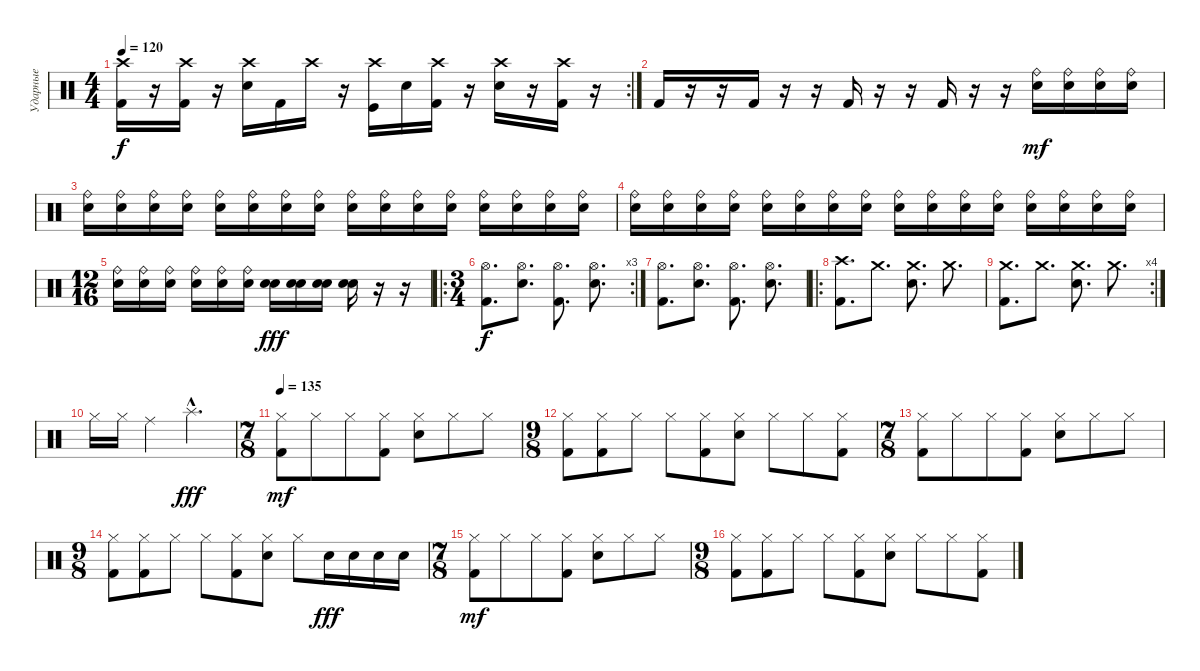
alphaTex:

\track ("Ударные" "Ударные") {instrument percussion}
\staff {score}
\articulation defaults
\rc 2
\ts (4 4)
\tempo 120
\clef neutral
\ks c
("Crash high (hit)" "Kick (hit) 2").16{dy f} r.16 ("Crash high (hit)" "Kick (hit) 2").16 r.16 ("Crash high (hit)" "Snare (hit) 2").16 "Kick (hit) 2".16 "Crash high (hit)".16 r.16 ("Crash high (hit)" "Kick (hit)").16 "Snare (hit) 2".16 ("Crash high (hit)" "Kick (hit) 2").16 r.16 ("Crash high (hit)" "Snare (hit) 2").16 r.16 ("Crash high (hit)" "Kick (hit) 2").16 r.16 |
"Kick (hit) 2".16 r.16 r.16 "Kick (hit) 2".16 r.16 r.16 "Kick (hit) 2".16 r.16 r.16 "Kick (hit) 2".16 r.16 r.16 ("Snare (hit) 2" "Ride (bell)").16{dy mf} ("Snare (hit) 2" "Ride (bell)").16 ("Snare (hit) 2" "Ride (bell)").16 ("Snare (hit) 2" "Ride (bell)").16 |
("Snare (hit) 2" "Ride (bell)").16 ("Snare (hit) 2" "Ride (bell)").16 ("Snare (hit) 2" "Ride (bell)").16 ("Snare (hit) 2" "Ride (bell)").16 ("Snare (hit) 2" "Ride (bell)").16 ("Snare (hit) 2" "Ride (bell)").16 ("Snare (hit) 2" "Ride (bell)").16 ("Snare (hit) 2" "Ride (bell)").16 ("Snare (hit) 2" "Ride (bell)").16 ("Snare (hit) 2" "Ride (bell)").16 ("Snare (hit) 2" "Ride (bell)").16 ("Snare (hit) 2" "Ride (bell)").16 ("Snare (hit) 2" "Ride (bell)").16 ("Snare (hit) 2" "Ride (bell)").16 ("Snare (hit) 2" "Ride (bell)").16 ("Snare (hit) 2" "Ride (bell)").16 |
("Snare (hit) 2" "Ride (bell)").16 ("Snare (hit) 2" "Ride (bell)").16 ("Snare (hit) 2" "Ride (bell)").16 ("Snare (hit) 2" "Ride (bell)").16 ("Snare (hit) 2" "Ride (bell)").16 ("Snare (hit) 2" "Ride (bell)").16 ("Snare (hit) 2" "Ride (bell)").16 ("Snare (hit) 2" "Ride (bell)").16 ("Snare (hit) 2" "Ride (bell)").16 ("Snare (hit) 2" "Ride (bell)").16 ("Snare (hit) 2" "Ride (bell)").16 ("Snare (hit) 2" "Ride (bell)").16 ("Snare (hit) 2" "Ride (bell)").16 ("Snare (hit) 2" "Ride (bell)").16 ("Snare (hit) 2" "Ride (bell)").16 ("Snare (hit) 2" "Ride (bell)").16 |
\ts (12 16)
("Snare (hit) 2" "Ride (bell)").16 ("Snare (hit) 2" "Ride (bell)").16 ("Snare (hit) 2" "Ride (bell)").16 ("Snare (hit) 2" "Ride (bell)").16 ("Snare (hit) 2" "Ride (bell)").16 ("Snare (hit) 2" "Ride (bell)").16 ("Electric Snare (hit)" "Snare (hit) 2").16{dy fff} ("Electric Snare (hit)" "Snare (hit) 2").16 ("Electric Snare (hit)" "Snare (hit) 2").16 ("Electric Snare (hit)" "Snare (hit) 2").16 r.16 r.16 |
\ro
\rc 3
\ts (3 4)
("Hi-Hat (open)" "Kick (hit) 2").8{d dy f} ("Hi-Hat (open)" "Snare (hit) 2").8{d} ("Hi-Hat (open)" "Kick (hit) 2").8{d} ("Hi-Hat (open)" "Snare (hit) 2").8{d} |
("Hi-Hat (open)" "Kick (hit) 2").8{d} ("Hi-Hat (open)" "Snare (hit) 2").8{d} ("Hi-Hat (open)" "Kick (hit) 2").8{d} ("Hi-Hat (open)" "Snare (hit) 2").8{d} |
\ro
("Crash high (hit)" "Kick (hit) 2").8{d} "Crash medium (hit)".8{d} ("Crash medium (hit)" "Snare (hit) 2").8{d} "Crash medium (hit)".8{d} |
\rc 4
("Crash medium (hit)" "Kick (hit) 2").8{d} "Crash medium (hit)".8{d} ("Crash medium (hit)" "Snare (hit) 2").8{d} "Crash medium (hit)".8{d} |
"Hi-Hat (closed)".16 "Hi-Hat (closed)".16 "Ride (middle)".4 "Splash (hit)"{hac}.4{d dy fff} |
\ts (7 8)
\tempo 135
("Hi-Hat (closed)" "Kick (hit) 2").8{dy mf} "Hi-Hat (closed)".8 "Hi-Hat (closed)".8 ("Hi-Hat (closed)" "Kick (hit) 2").8 ("Hi-Hat (closed)" "Snare (hit) 2").8 "Hi-Hat (closed)".8 "Hi-Hat (closed)".8 |
\ts (9 8)
("Hi-Hat (closed)" "Kick (hit) 2").8 ("Hi-Hat (closed)" "Kick (hit) 2").8 "Hi-Hat (closed)".8 "Hi-Hat (closed)".8 ("Hi-Hat (closed)" "Kick (hit) 2").8 ("Hi-Hat (closed)" "Snare (hit) 2").8 "Hi-Hat (closed)".8 "Hi-Hat (closed)".8 ("Hi-Hat (closed)" "Kick (hit) 2").8 |
\ts (7 8)
("Hi-Hat (closed)" "Kick (hit) 2").8 "Hi-Hat (closed)".8 "Hi-Hat (closed)".8 ("Hi-Hat (closed)" "Kick (hit) 2").8 ("Hi-Hat (closed)" "Snare (hit) 2").8 "Hi-Hat (closed)".8 "Hi-Hat (closed)".8 |
\ts (9 8)
("Hi-Hat (closed)" "Kick (hit) 2").8 ("Hi-Hat (closed)" "Kick (hit) 2").8 "Hi-Hat (closed)".8 "Hi-Hat (closed)".8 ("Hi-Hat (closed)" "Kick (hit) 2").8 ("Hi-Hat (closed)" "Snare (hit) 2").8 "Hi-Hat (closed)".8 "Snare (hit) 2".16{dy fff} "Snare (hit) 2".16 "Snare (hit) 2".16 "Snare (hit) 2".16 |
\ts (7 8)
("Hi-Hat (closed)" "Kick (hit) 2").8{dy mf} "Hi-Hat (closed)".8 "Hi-Hat (closed)".8 ("Hi-Hat (closed)" "Kick (hit) 2").8 ("Hi-Hat (closed)" "Snare (hit) 2").8 "Hi-Hat (closed)".8 "Hi-Hat (closed)".8 |
\ts (9 8)
("Hi-Hat (closed)" "Kick (hit) 2").8 ("Hi-Hat (closed)" "Kick (hit) 2").8 "Hi-Hat (closed)".8 "Hi-Hat (closed)".8 ("Hi-Hat (closed)" "Kick (hit) 2").8 ("Hi-Hat (closed)" "Snare (hit) 2").8 "Hi-Hat (closed)".8 "Hi-Hat (closed)".8 ("Hi-Hat (closed)" "Kick (hit) 2").8
